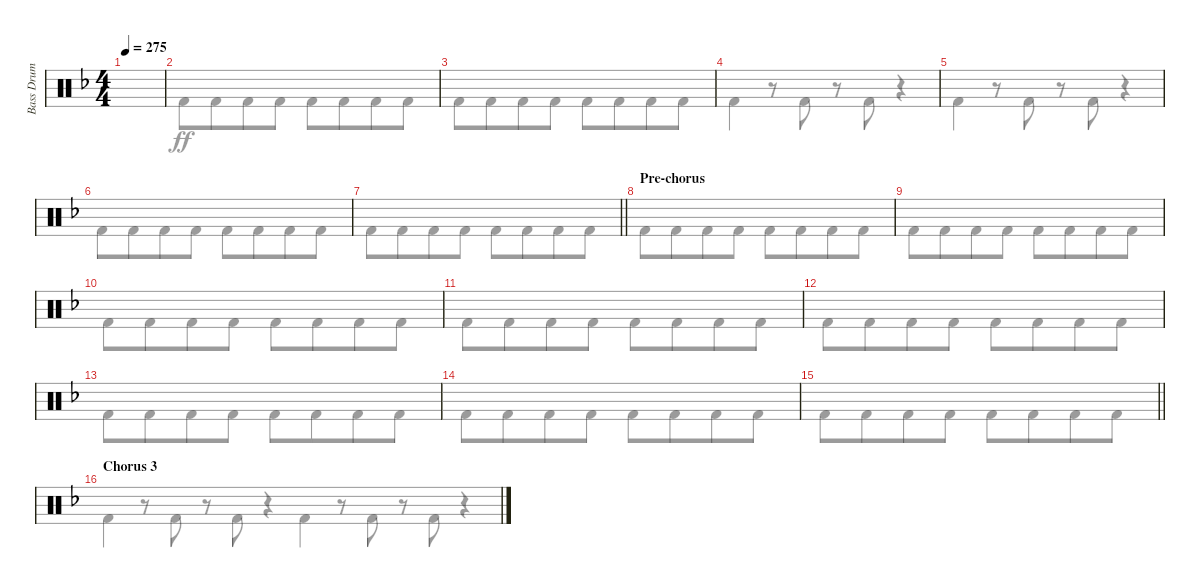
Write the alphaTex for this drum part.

\track ("Bass Drum" "Bass Drum") {instrument percussion}
\staff {score}
\articulation defaults
\voice
\ts (4 4)
\tempo 275
\clef neutral
\ks dminor
|
|
|
|
|
|
\barLineRight lightlight
|
\section ("" "Pre-chorus")
|
|
|
|
|
|
|
\barLineRight lightlight
|
\section ("" "Chorus 3")
\voice
\clef neutral
\ks dminor "Kick (hit) 2".4{dy ff}
r.8 "Kick (hit) 2".8 r.8 "Kick (hit) 2".8 r.4 |
"Kick (hit) 2".8 "Kick (hit) 2".8{beam merge} "Kick (hit) 2".8 "Kick (hit) 2".8 "Kick (hit) 2".8 "Kick (hit) 2".8{beam merge} "Kick (hit) 2".8 "Kick (hit) 2".8 |
"Kick (hit) 2".8 "Kick (hit) 2".8{beam merge} "Kick (hit) 2".8 "Kick (hit) 2".8 "Kick (hit) 2".8 "Kick (hit) 2".8{beam merge} "Kick (hit) 2".8 "Kick (hit) 2".8 |
"Kick (hit) 2".4 r.8 "Kick (hit) 2".8 r.8 "Kick (hit) 2".8 r.4 |
"Kick (hit) 2".4 r.8 "Kick (hit) 2".8 r.8 "Kick (hit) 2".8 r.4 |
"Kick (hit) 2".8 "Kick (hit) 2".8{beam merge} "Kick (hit) 2".8 "Kick (hit) 2".8 "Kick (hit) 2".8 "Kick (hit) 2".8{beam merge} "Kick (hit) 2".8 "Kick (hit) 2".8 |
\barLineRight lightlight "Kick (hit) 2".8 "Kick (hit) 2".8{beam merge} "Kick (hit) 2".8 "Kick (hit) 2".8 "Kick (hit) 2".8 "Kick (hit) 2".8{beam merge} "Kick (hit) 2".8 "Kick (hit) 2".8
|
"Kick (hit) 2".8 "Kick (hit) 2".8{beam merge} "Kick (hit) 2".8 "Kick (hit) 2".8 "Kick (hit) 2".8 "Kick (hit) 2".8{beam merge} "Kick (hit) 2".8 "Kick (hit) 2".8 |
"Kick (hit) 2".8 "Kick (hit) 2".8{beam merge} "Kick (hit) 2".8 "Kick (hit) 2".8 "Kick (hit) 2".8 "Kick (hit) 2".8{beam merge} "Kick (hit) 2".8 "Kick (hit) 2".8 |
"Kick (hit) 2".8 "Kick (hit) 2".8{beam merge} "Kick (hit) 2".8 "Kick (hit) 2".8 "Kick (hit) 2".8 "Kick (hit) 2".8{beam merge} "Kick (hit) 2".8 "Kick (hit) 2".8 |
"Kick (hit) 2".8 "Kick (hit) 2".8{beam merge} "Kick (hit) 2".8 "Kick (hit) 2".8 "Kick (hit) 2".8 "Kick (hit) 2".8{beam merge} "Kick (hit) 2".8 "Kick (hit) 2".8 |
"Kick (hit) 2".8 "Kick (hit) 2".8{beam merge} "Kick (hit) 2".8 "Kick (hit) 2".8 "Kick (hit) 2".8 "Kick (hit) 2".8{beam merge} "Kick (hit) 2".8 "Kick (hit) 2".8 |
"Kick (hit) 2".8 "Kick (hit) 2".8{beam merge} "Kick (hit) 2".8 "Kick (hit) 2".8 "Kick (hit) 2".8 "Kick (hit) 2".8{beam merge} "Kick (hit) 2".8 "Kick (hit) 2".8 |
"Kick (hit) 2".8 "Kick (hit) 2".8{beam merge} "Kick (hit) 2".8 "Kick (hit) 2".8 "Kick (hit) 2".8 "Kick (hit) 2".8{beam merge} "Kick (hit) 2".8 "Kick (hit) 2".8 |
\barLineRight lightlight "Kick (hit) 2".8 "Kick (hit) 2".8{beam merge} "Kick (hit) 2".8 "Kick (hit) 2".8 "Kick (hit) 2".8 "Kick (hit) 2".8{beam merge} "Kick (hit) 2".8 "Kick (hit) 2".8
|
"Kick (hit) 2".4 r.8 "Kick (hit) 2".8 r.8 "Kick (hit) 2".8 r.4
